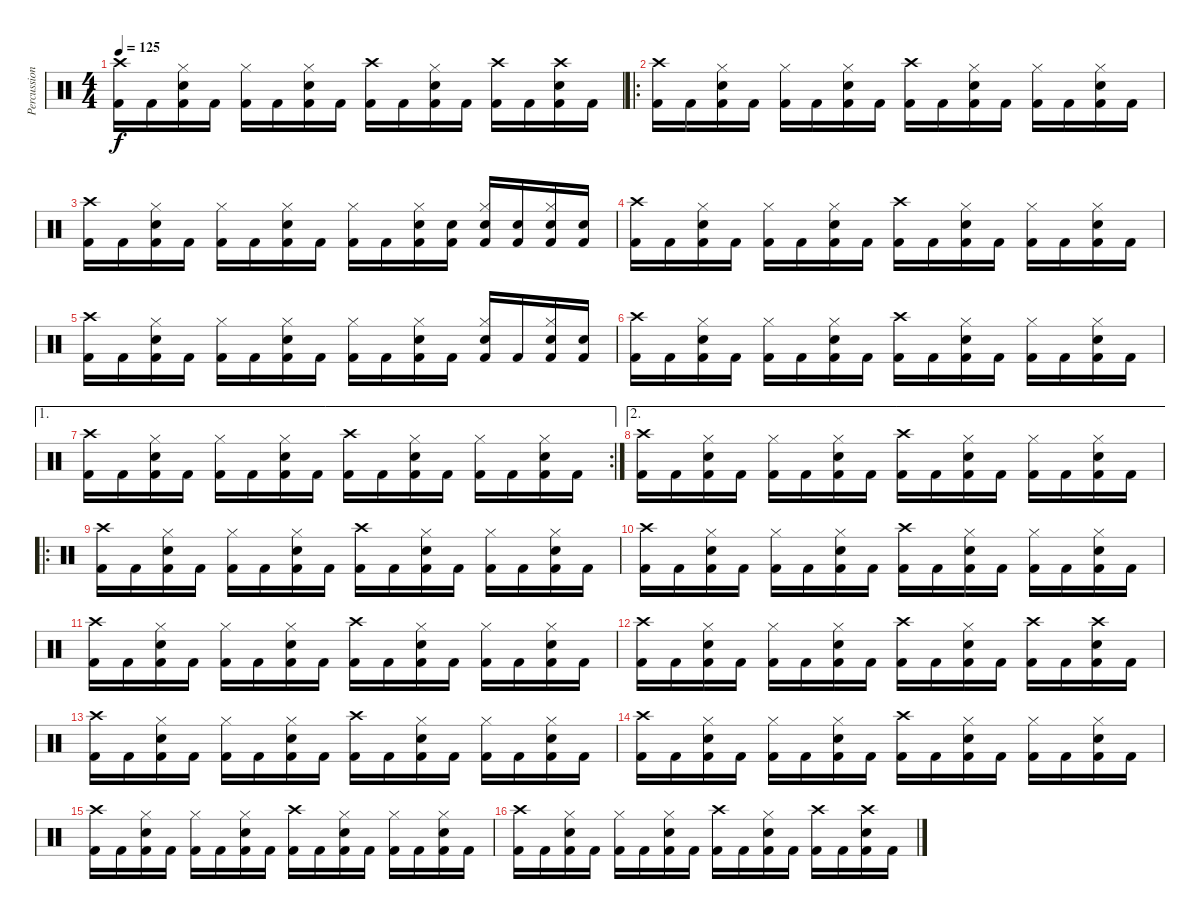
\track ("Percussion" "Percussion") {instrument percussion}
\staff {score}
\articulation defaults
\ts (4 4)
\tempo 125
\clef neutral
\ks c
("Crash high (hit)" "Kick (hit) 2").16{dy f} "Kick (hit) 2".16 ("Hi-Hat (closed)" "Snare (hit) 2" "Kick (hit) 2").16 "Kick (hit) 2".16 ("Hi-Hat (closed)" "Kick (hit) 2").16 "Kick (hit) 2".16 ("Hi-Hat (closed)" "Snare (hit) 2" "Kick (hit) 2").16 "Kick (hit) 2".16 ("Crash high (hit)" "Kick (hit) 2").16 "Kick (hit) 2".16 ("Hi-Hat (closed)" "Snare (hit) 2" "Kick (hit) 2").16 "Kick (hit) 2".16 ("Crash high (hit)" "Kick (hit) 2").16 "Kick (hit) 2".16 ("Crash high (hit)" "Snare (hit) 2" "Kick (hit) 2").16 "Kick (hit) 2".16 |
\ro
("Crash high (hit)" "Kick (hit) 2").16 "Kick (hit) 2".16 ("Hi-Hat (closed)" "Snare (hit) 2" "Kick (hit) 2").16 "Kick (hit) 2".16 ("Hi-Hat (closed)" "Kick (hit) 2").16 "Kick (hit) 2".16 ("Hi-Hat (closed)" "Snare (hit) 2" "Kick (hit) 2").16 "Kick (hit) 2".16 ("Crash high (hit)" "Kick (hit) 2").16 "Kick (hit) 2".16 ("Hi-Hat (closed)" "Snare (hit) 2" "Kick (hit) 2").16 "Kick (hit) 2".16 ("Hi-Hat (closed)" "Kick (hit) 2").16 "Kick (hit) 2".16 ("Hi-Hat (closed)" "Snare (hit) 2" "Kick (hit) 2").16 "Kick (hit) 2".16 |
("Crash high (hit)" "Kick (hit) 2").16 "Kick (hit) 2".16 ("Hi-Hat (closed)" "Snare (hit) 2" "Kick (hit) 2").16 "Kick (hit) 2".16 ("Hi-Hat (closed)" "Kick (hit) 2").16 "Kick (hit) 2".16 ("Hi-Hat (closed)" "Snare (hit) 2" "Kick (hit) 2").16 "Kick (hit) 2".16 ("Hi-Hat (closed)" "Kick (hit) 2").16 "Kick (hit) 2".16 ("Hi-Hat (closed)" "Snare (hit) 2" "Kick (hit) 2").16 ("Snare (hit) 2" "Kick (hit) 2").16 ("Hi-Hat (closed)" "Snare (hit) 2" "Kick (hit) 2").16 ("Snare (hit) 2" "Kick (hit) 2").16 ("Hi-Hat (closed)" "Snare (hit) 2" "Kick (hit) 2").16 ("Snare (hit) 2" "Kick (hit) 2").16 |
("Crash high (hit)" "Kick (hit) 2").16 "Kick (hit) 2".16 ("Hi-Hat (closed)" "Snare (hit) 2" "Kick (hit) 2").16 "Kick (hit) 2".16 ("Hi-Hat (closed)" "Kick (hit) 2").16 "Kick (hit) 2".16 ("Hi-Hat (closed)" "Snare (hit) 2" "Kick (hit) 2").16 "Kick (hit) 2".16 ("Crash high (hit)" "Kick (hit) 2").16 "Kick (hit) 2".16 ("Hi-Hat (closed)" "Snare (hit) 2" "Kick (hit) 2").16 "Kick (hit) 2".16 ("Hi-Hat (closed)" "Kick (hit) 2").16 "Kick (hit) 2".16 ("Hi-Hat (closed)" "Snare (hit) 2" "Kick (hit) 2").16 "Kick (hit) 2".16 |
("Crash high (hit)" "Kick (hit) 2").16 "Kick (hit) 2".16 ("Hi-Hat (closed)" "Snare (hit) 2" "Kick (hit) 2").16 "Kick (hit) 2".16 ("Hi-Hat (closed)" "Kick (hit) 2").16 "Kick (hit) 2".16 ("Hi-Hat (closed)" "Snare (hit) 2" "Kick (hit) 2").16 "Kick (hit) 2".16 ("Hi-Hat (closed)" "Kick (hit) 2").16 "Kick (hit) 2".16 ("Hi-Hat (closed)" "Snare (hit) 2" "Kick (hit) 2").16 "Kick (hit) 2".16 ("Hi-Hat (closed)" "Snare (hit) 2" "Kick (hit) 2").16 "Kick (hit) 2".16 ("Hi-Hat (closed)" "Snare (hit) 2" "Kick (hit) 2").16 ("Snare (hit) 2" "Kick (hit) 2").16 |
("Crash high (hit)" "Kick (hit) 2").16 "Kick (hit) 2".16 ("Hi-Hat (closed)" "Snare (hit) 2" "Kick (hit) 2").16 "Kick (hit) 2".16 ("Hi-Hat (closed)" "Kick (hit) 2").16 "Kick (hit) 2".16 ("Hi-Hat (closed)" "Snare (hit) 2" "Kick (hit) 2").16 "Kick (hit) 2".16 ("Crash high (hit)" "Kick (hit) 2").16 "Kick (hit) 2".16 ("Hi-Hat (closed)" "Snare (hit) 2" "Kick (hit) 2").16 "Kick (hit) 2".16 ("Hi-Hat (closed)" "Kick (hit) 2").16 "Kick (hit) 2".16 ("Hi-Hat (closed)" "Snare (hit) 2" "Kick (hit) 2").16 "Kick (hit) 2".16 |
\ae 1
\rc 2
("Crash high (hit)" "Kick (hit) 2").16 "Kick (hit) 2".16 ("Hi-Hat (closed)" "Snare (hit) 2" "Kick (hit) 2").16 "Kick (hit) 2".16 ("Hi-Hat (closed)" "Kick (hit) 2").16 "Kick (hit) 2".16 ("Hi-Hat (closed)" "Snare (hit) 2" "Kick (hit) 2").16 "Kick (hit) 2".16 ("Crash high (hit)" "Kick (hit) 2").16 "Kick (hit) 2".16 ("Hi-Hat (closed)" "Snare (hit) 2" "Kick (hit) 2").16 "Kick (hit) 2".16 ("Hi-Hat (closed)" "Kick (hit) 2").16 "Kick (hit) 2".16 ("Hi-Hat (closed)" "Snare (hit) 2" "Kick (hit) 2").16 "Kick (hit) 2".16 |
\ae 2
("Crash high (hit)" "Kick (hit) 2").16 "Kick (hit) 2".16 ("Hi-Hat (closed)" "Snare (hit) 2" "Kick (hit) 2").16 "Kick (hit) 2".16 ("Hi-Hat (closed)" "Kick (hit) 2").16 "Kick (hit) 2".16 ("Hi-Hat (closed)" "Snare (hit) 2" "Kick (hit) 2").16 "Kick (hit) 2".16 ("Crash high (hit)" "Kick (hit) 2").16 "Kick (hit) 2".16 ("Hi-Hat (closed)" "Snare (hit) 2" "Kick (hit) 2").16 "Kick (hit) 2".16 ("Hi-Hat (closed)" "Kick (hit) 2").16 "Kick (hit) 2".16 ("Hi-Hat (closed)" "Snare (hit) 2" "Kick (hit) 2").16 "Kick (hit) 2".16 |
\ro
("Crash high (hit)" "Kick (hit) 2").16 "Kick (hit) 2".16 ("Hi-Hat (closed)" "Snare (hit) 2" "Kick (hit) 2").16 "Kick (hit) 2".16 ("Hi-Hat (closed)" "Kick (hit) 2").16 "Kick (hit) 2".16 ("Hi-Hat (closed)" "Snare (hit) 2" "Kick (hit) 2").16 "Kick (hit) 2".16 ("Crash high (hit)" "Kick (hit) 2").16 "Kick (hit) 2".16 ("Hi-Hat (closed)" "Snare (hit) 2" "Kick (hit) 2").16 "Kick (hit) 2".16 ("Hi-Hat (closed)" "Kick (hit) 2").16 "Kick (hit) 2".16 ("Hi-Hat (closed)" "Snare (hit) 2" "Kick (hit) 2").16 "Kick (hit) 2".16 |
("Crash high (hit)" "Kick (hit) 2").16 "Kick (hit) 2".16 ("Hi-Hat (closed)" "Snare (hit) 2" "Kick (hit) 2").16 "Kick (hit) 2".16 ("Hi-Hat (closed)" "Kick (hit) 2").16 "Kick (hit) 2".16 ("Hi-Hat (closed)" "Snare (hit) 2" "Kick (hit) 2").16 "Kick (hit) 2".16 ("Crash high (hit)" "Kick (hit) 2").16 "Kick (hit) 2".16 ("Hi-Hat (closed)" "Snare (hit) 2" "Kick (hit) 2").16 "Kick (hit) 2".16 ("Hi-Hat (closed)" "Kick (hit) 2").16 "Kick (hit) 2".16 ("Hi-Hat (closed)" "Snare (hit) 2" "Kick (hit) 2").16 "Kick (hit) 2".16 |
("Crash high (hit)" "Kick (hit) 2").16 "Kick (hit) 2".16 ("Hi-Hat (closed)" "Snare (hit) 2" "Kick (hit) 2").16 "Kick (hit) 2".16 ("Hi-Hat (closed)" "Kick (hit) 2").16 "Kick (hit) 2".16 ("Hi-Hat (closed)" "Snare (hit) 2" "Kick (hit) 2").16 "Kick (hit) 2".16 ("Crash high (hit)" "Kick (hit) 2").16 "Kick (hit) 2".16 ("Hi-Hat (closed)" "Snare (hit) 2" "Kick (hit) 2").16 "Kick (hit) 2".16 ("Hi-Hat (closed)" "Kick (hit) 2").16 "Kick (hit) 2".16 ("Hi-Hat (closed)" "Snare (hit) 2" "Kick (hit) 2").16 "Kick (hit) 2".16 |
("Crash high (hit)" "Kick (hit) 2").16 "Kick (hit) 2".16 ("Hi-Hat (closed)" "Snare (hit) 2" "Kick (hit) 2").16 "Kick (hit) 2".16 ("Hi-Hat (closed)" "Kick (hit) 2").16 "Kick (hit) 2".16 ("Hi-Hat (closed)" "Snare (hit) 2" "Kick (hit) 2").16 "Kick (hit) 2".16 ("Crash high (hit)" "Kick (hit) 2").16 "Kick (hit) 2".16 ("Hi-Hat (closed)" "Snare (hit) 2" "Kick (hit) 2").16 "Kick (hit) 2".16 ("Crash high (hit)" "Kick (hit) 2").16 "Kick (hit) 2".16 ("Crash high (hit)" "Snare (hit) 2" "Kick (hit) 2").16 "Kick (hit) 2".16 |
("Crash high (hit)" "Kick (hit) 2").16 "Kick (hit) 2".16 ("Hi-Hat (closed)" "Snare (hit) 2" "Kick (hit) 2").16 "Kick (hit) 2".16 ("Hi-Hat (closed)" "Kick (hit) 2").16 "Kick (hit) 2".16 ("Hi-Hat (closed)" "Snare (hit) 2" "Kick (hit) 2").16 "Kick (hit) 2".16 ("Crash high (hit)" "Kick (hit) 2").16 "Kick (hit) 2".16 ("Hi-Hat (closed)" "Snare (hit) 2" "Kick (hit) 2").16 "Kick (hit) 2".16 ("Hi-Hat (closed)" "Kick (hit) 2").16 "Kick (hit) 2".16 ("Hi-Hat (closed)" "Snare (hit) 2" "Kick (hit) 2").16 "Kick (hit) 2".16 |
("Crash high (hit)" "Kick (hit) 2").16 "Kick (hit) 2".16 ("Hi-Hat (closed)" "Snare (hit) 2" "Kick (hit) 2").16 "Kick (hit) 2".16 ("Hi-Hat (closed)" "Kick (hit) 2").16 "Kick (hit) 2".16 ("Hi-Hat (closed)" "Snare (hit) 2" "Kick (hit) 2").16 "Kick (hit) 2".16 ("Crash high (hit)" "Kick (hit) 2").16 "Kick (hit) 2".16 ("Hi-Hat (closed)" "Snare (hit) 2" "Kick (hit) 2").16 "Kick (hit) 2".16 ("Hi-Hat (closed)" "Kick (hit) 2").16 "Kick (hit) 2".16 ("Hi-Hat (closed)" "Snare (hit) 2" "Kick (hit) 2").16 "Kick (hit) 2".16 |
("Crash high (hit)" "Kick (hit) 2").16 "Kick (hit) 2".16 ("Hi-Hat (closed)" "Snare (hit) 2" "Kick (hit) 2").16 "Kick (hit) 2".16 ("Hi-Hat (closed)" "Kick (hit) 2").16 "Kick (hit) 2".16 ("Hi-Hat (closed)" "Snare (hit) 2" "Kick (hit) 2").16 "Kick (hit) 2".16 ("Crash high (hit)" "Kick (hit) 2").16 "Kick (hit) 2".16 ("Hi-Hat (closed)" "Snare (hit) 2" "Kick (hit) 2").16 "Kick (hit) 2".16 ("Hi-Hat (closed)" "Kick (hit) 2").16 "Kick (hit) 2".16 ("Hi-Hat (closed)" "Snare (hit) 2" "Kick (hit) 2").16 "Kick (hit) 2".16 |
("Crash high (hit)" "Kick (hit) 2").16 "Kick (hit) 2".16 ("Hi-Hat (closed)" "Snare (hit) 2" "Kick (hit) 2").16 "Kick (hit) 2".16 ("Hi-Hat (closed)" "Kick (hit) 2").16 "Kick (hit) 2".16 ("Hi-Hat (closed)" "Snare (hit) 2" "Kick (hit) 2").16 "Kick (hit) 2".16 ("Crash high (hit)" "Kick (hit) 2").16 "Kick (hit) 2".16 ("Hi-Hat (closed)" "Snare (hit) 2" "Kick (hit) 2").16 "Kick (hit) 2".16 ("Crash high (hit)" "Kick (hit) 2").16 "Kick (hit) 2".16 ("Crash high (hit)" "Snare (hit) 2" "Kick (hit) 2").16 "Kick (hit) 2".16
